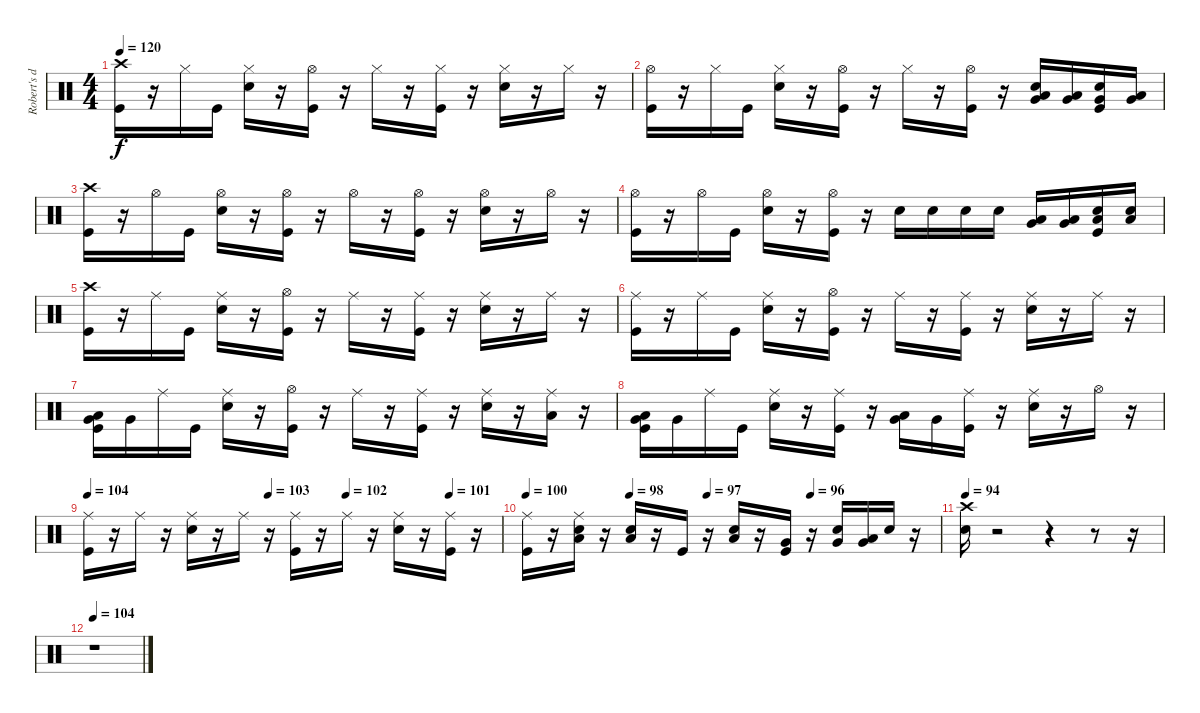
\track ("Robert's drums" "Robert's d") {instrument percussion}
\staff {score}
\articulation defaults
\ts (4 4)
\tempo 120
\clef neutral
\ks c
("Crash high (hit)" "Kick (hit)").16{dy f} r.16 "Hi-Hat (closed)".16 "Kick (hit)".16 ("Electric Snare (hit)" "Hi-Hat (closed)").16 r.16 ("Hi-Hat (open)" "Kick (hit)").16 r.16 "Hi-Hat (closed)".16 r.16 ("Kick (hit)" "Hi-Hat (closed)").16 r.16 ("Electric Snare (hit)" "Hi-Hat (closed)").16 r.16 "Hi-Hat (closed)".16 r.16 |
("Hi-Hat (open)" "Kick (hit)").16 r.16 "Hi-Hat (closed)".16 "Kick (hit)".16 ("Hi-Hat (closed)" "Electric Snare (hit)").16 r.16 ("Kick (hit)" "Hi-Hat (open)").16 r.16 "Hi-Hat (closed)".16 r.16 ("Kick (hit)" "Hi-Hat (open)").16 r.16 ("Very Low Tom (hit)" "Low Tom (hit)" "Electric Snare (hit)").16 ("Low Floor Tom (hit)" "Very Low Tom (hit)").16 ("Very Low Tom (hit)" "Electric Snare (hit)" "Kick (hit)").16 ("Very Low Tom (hit)" "Low Floor Tom (hit)").16 |
("Crash high (hit)" "Kick (hit)").16 r.16 "Hi-Hat (open)".16 "Kick (hit)".16 ("Hi-Hat (open)" "Electric Snare (hit)").16 r.16 ("Hi-Hat (open)" "Kick (hit)").16 r.16 "Hi-Hat (open)".16 r.16 ("Hi-Hat (open)" "Kick (hit)").16 r.16 ("Hi-Hat (open)" "Electric Snare (hit)").16 r.16 "Hi-Hat (open)".16 r.16 |
("Kick (hit)" "Hi-Hat (open)").16 r.16 "Hi-Hat (open)".16 "Kick (hit)".16 ("Hi-Hat (open)" "Electric Snare (hit)").16 r.16 ("Hi-Hat (open)" "Kick (hit)").16 r.16 "Electric Snare (hit)".16 "Electric Snare (hit)".16 "Electric Snare (hit)".16 "Electric Snare (hit)".16 ("Low Tom (hit)" "Very Low Tom (hit)").16 ("Very Low Tom (hit)" "Low Floor Tom (hit)").16 ("Low Floor Tom (hit)" "Electric Snare (hit)" "Kick (hit)").16 ("Low Floor Tom (hit)" "Electric Snare (hit)").16 |
("Crash high (hit)" "Kick (hit)").16 r.16 "Ride (middle)".16 "Kick (hit)".16 ("Ride (middle)" "Electric Snare (hit)").16 r.16 ("Kick (hit)" "Hi-Hat (open)").16 r.16 "Ride (middle)".16 r.16 ("Kick (hit)" "Ride (middle)").16 r.16 ("Electric Snare (hit)" "Ride (middle)").16 r.16 "Ride (middle)".16 r.16 |
("Ride (middle)" "Kick (hit)").16 r.16 "Ride (middle)".16 "Kick (hit)".16 ("Ride (middle)" "Electric Snare (hit)").16 r.16 ("Kick (hit)" "Hi-Hat (open)").16 r.16 "Ride (middle)".16 r.16 ("Ride (middle)" "Kick (hit)").16 r.16 ("Electric Snare (hit)" "Ride (middle)").16 r.16 "Ride (middle)".16 r.16 |
("Very Low Tom (hit)" "Low Tom (hit)" "Kick (hit)").16 "Very Low Tom (hit)".16 "Ride (middle)".16 "Kick (hit)".16 ("Ride (middle)" "Electric Snare (hit)").16 r.16 ("Hi-Hat (open)" "Kick (hit)").16 r.16 "Ride (middle)".16 r.16 ("Ride (middle)" "Kick (hit)").16 r.16 ("Electric Snare (hit)" "Ride (middle)").16 r.16 ("Low Floor Tom (hit)" "Ride (middle)").16 r.16 |
("Very Low Tom (hit)" "Low Tom (hit)" "Kick (hit)").16 "Very Low Tom (hit)".16 "Ride (middle)".16 "Kick (hit)".16 ("Electric Snare (hit)" "Ride (middle)").16 r.16 ("Ride (middle)" "Kick (hit)").16 r.16 ("Very Low Tom (hit)" "Low Tom (hit)").16 "Very Low Tom (hit)".16 ("Kick (hit)" "Ride (middle)").16 r.16 ("Ride (middle)" "Electric Snare (hit)").16 r.16 "Hi-Hat (open)".16 r.16 |
\tempo 104
\tempo (103 0.4375)
\tempo (102 0.625)
\tempo (101 0.875)
("Ride (middle)" "Kick (hit)").16 r.16 "Ride (middle)".16 r.16 ("Ride (middle)" "Electric Snare (hit)").16 r.16 "Ride (middle)".16 r.16 ("Ride (middle)" "Kick (hit)").16 r.16 "Ride (middle)".16 r.16 ("Ride (middle)" "Electric Snare (hit)").16 r.16 ("Kick (hit)" "Ride (middle)").16 r.16 |
\tempo 100
\tempo (98 0.25)
\tempo (97 0.4375)
\tempo (96 0.6875)
("Kick (hit)" "Ride (middle)").16 r.16 ("Electric Snare (hit)" "Ride (middle)" "Low Floor Tom (hit)").16 r.16 ("Electric Snare (hit)" "Low Floor Tom (hit)").16 r.16 "Kick (hit)".16 r.16 ("Electric Snare (hit)" "Low Floor Tom (hit)").16 r.16 ("Very Low Tom (hit)" "Kick (hit)").16 r.16 ("Electric Snare (hit)" "Very Low Tom (hit)").16 ("Very Low Tom (hit)" "Low Floor Tom (hit)").16 "Electric Snare (hit)".16 r.16 |
\tempo 94
("Crash high (hit)" "Electric Snare (hit)").16 r.2 r.4 r.8 r.16 |
\tempo 104
r.1
